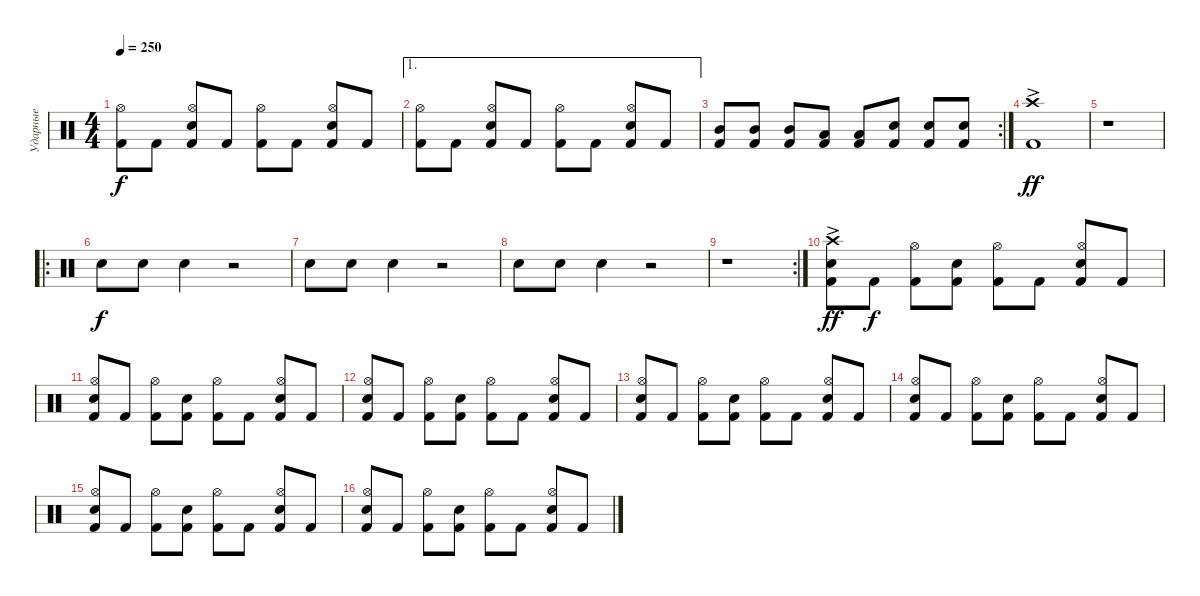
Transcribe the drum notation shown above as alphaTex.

\track ("Ударные" "Ударные") {instrument percussion}
\staff {score}
\articulation defaults
\ts (4 4)
\tempo 250
\clef neutral
\ks c
("Kick (hit) 2" "Hi-Hat (open)").8{dy f} "Kick (hit) 2".8 ("Kick (hit) 2" "Snare (hit) 2" "Hi-Hat (open)").8 "Kick (hit) 2".8 ("Kick (hit) 2" "Hi-Hat (open)").8 "Kick (hit) 2".8 ("Kick (hit) 2" "Snare (hit) 2" "Hi-Hat (open)").8 "Kick (hit) 2".8 |
\ae 1
("Kick (hit) 2" "Hi-Hat (open)").8 "Kick (hit) 2".8 ("Kick (hit) 2" "Snare (hit) 2" "Hi-Hat (open)").8 "Kick (hit) 2".8 ("Kick (hit) 2" "Hi-Hat (open)").8 "Kick (hit) 2".8 ("Kick (hit) 2" "Snare (hit) 2" "Hi-Hat (open)").8 "Kick (hit) 2".8 |
\rc 2
("Kick (hit) 2" "Mid Tom (hit)").8 ("Kick (hit) 2" "Mid Tom (hit)").8 ("Kick (hit) 2" "Mid Tom (hit)").8 ("Kick (hit) 2" "Low Tom (hit)").8 ("Kick (hit) 2" "Low Tom (hit)").8 ("Kick (hit) 2" "Snare (hit) 2").8 ("Kick (hit) 2" "Snare (hit) 2").8 ("Kick (hit) 2" "Snare (hit) 2").8 |
("Kick (hit) 2" "Crash high (hit)"{ac}).1{dy ff} |
r.1 |
\ro "Snare (hit) 2".8{dy f} "Snare (hit) 2".8 "Snare (hit) 2".4
r.2 |
"Snare (hit) 2".8 "Snare (hit) 2".8 "Snare (hit) 2".4 r.2 |
"Snare (hit) 2".8 "Snare (hit) 2".8 "Snare (hit) 2".4 r.2 |
\rc 2
r.1 |
("Kick (hit) 2" "Snare (hit) 2" "Crash high (hit)"{ac}).8{dy ff} "Kick (hit) 2".8{dy f} ("Kick (hit) 2" "Hi-Hat (open)").8 ("Kick (hit) 2" "Snare (hit) 2").8 ("Kick (hit) 2" "Hi-Hat (open)").8 "Kick (hit) 2".8 ("Kick (hit) 2" "Snare (hit) 2" "Hi-Hat (open)").8 "Kick (hit) 2".8 |
("Kick (hit) 2" "Snare (hit) 2" "Hi-Hat (open)").8 "Kick (hit) 2".8 ("Kick (hit) 2" "Hi-Hat (open)").8 ("Kick (hit) 2" "Snare (hit) 2").8 ("Kick (hit) 2" "Hi-Hat (open)").8 "Kick (hit) 2".8 ("Kick (hit) 2" "Snare (hit) 2" "Hi-Hat (open)").8 "Kick (hit) 2".8 |
("Kick (hit) 2" "Snare (hit) 2" "Hi-Hat (open)").8 "Kick (hit) 2".8 ("Kick (hit) 2" "Hi-Hat (open)").8 ("Kick (hit) 2" "Snare (hit) 2").8 ("Kick (hit) 2" "Hi-Hat (open)").8 "Kick (hit) 2".8 ("Kick (hit) 2" "Snare (hit) 2" "Hi-Hat (open)").8 "Kick (hit) 2".8 |
("Kick (hit) 2" "Snare (hit) 2" "Hi-Hat (open)").8 "Kick (hit) 2".8 ("Kick (hit) 2" "Hi-Hat (open)").8 ("Kick (hit) 2" "Snare (hit) 2").8 ("Kick (hit) 2" "Hi-Hat (open)").8 "Kick (hit) 2".8 ("Kick (hit) 2" "Snare (hit) 2" "Hi-Hat (open)").8 "Kick (hit) 2".8 |
("Kick (hit) 2" "Snare (hit) 2" "Hi-Hat (open)").8 "Kick (hit) 2".8 ("Kick (hit) 2" "Hi-Hat (open)").8 ("Kick (hit) 2" "Snare (hit) 2").8 ("Kick (hit) 2" "Hi-Hat (open)").8 "Kick (hit) 2".8 ("Kick (hit) 2" "Snare (hit) 2" "Hi-Hat (open)").8 "Kick (hit) 2".8 |
("Kick (hit) 2" "Snare (hit) 2" "Hi-Hat (open)").8 "Kick (hit) 2".8 ("Kick (hit) 2" "Hi-Hat (open)").8 ("Kick (hit) 2" "Snare (hit) 2").8 ("Kick (hit) 2" "Hi-Hat (open)").8 "Kick (hit) 2".8 ("Kick (hit) 2" "Snare (hit) 2" "Hi-Hat (open)").8 "Kick (hit) 2".8 |
("Kick (hit) 2" "Snare (hit) 2" "Hi-Hat (open)").8 "Kick (hit) 2".8 ("Kick (hit) 2" "Hi-Hat (open)").8 ("Kick (hit) 2" "Snare (hit) 2").8 ("Kick (hit) 2" "Hi-Hat (open)").8 "Kick (hit) 2".8 ("Kick (hit) 2" "Snare (hit) 2" "Hi-Hat (open)").8 "Kick (hit) 2".8
